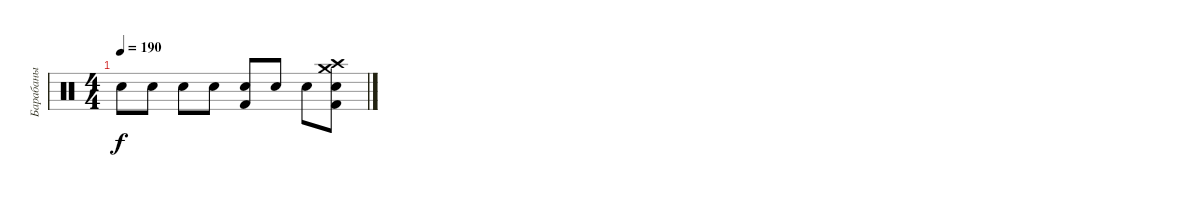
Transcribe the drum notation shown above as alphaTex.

\track ("Барабаны" "Барабаны") {instrument percussion}
\staff {score}
\articulation defaults
\ts (4 4)
\tempo 190
\clef neutral
\ks c "Electric Snare (hit)".8{dy f} "Electric Snare (hit)".8 "Electric Snare (hit)".8 "Electric Snare (hit)".8
("Electric Snare (hit)" "Kick (hit) 2").8 "Electric Snare (hit)".8 "Electric Snare (hit)".8 ("Electric Snare (hit)" "Crash high (hit)" "Crash medium (hit)" "Kick (hit) 2").8
